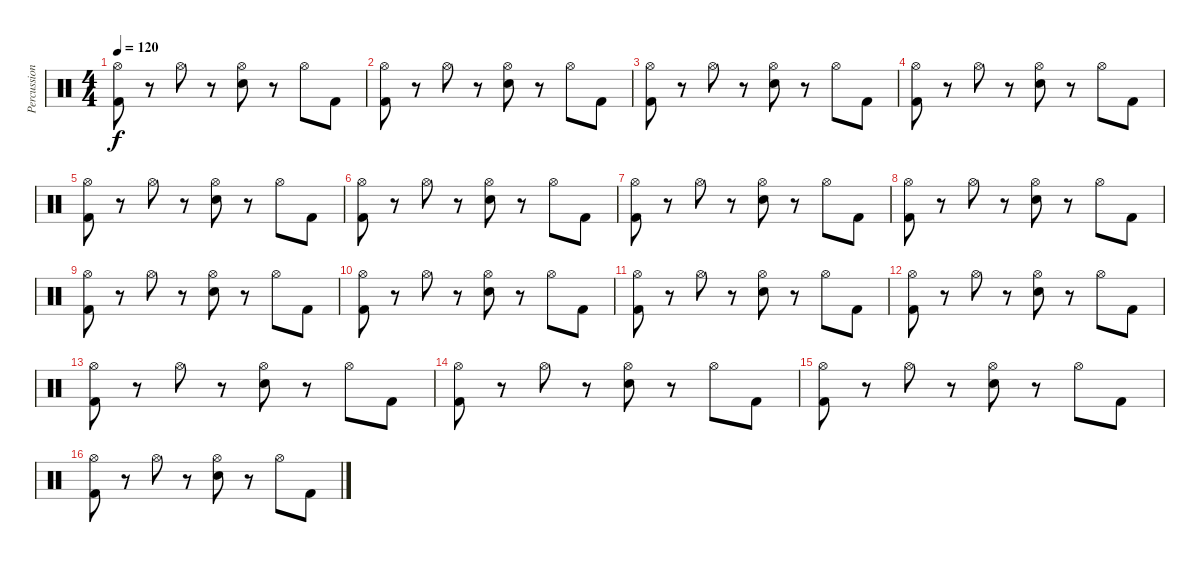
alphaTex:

\track ("Percussion" "Percussion") {instrument percussion}
\staff {score}
\articulation defaults
\ts (4 4)
\tempo 120
\clef neutral
\ks c
("Hi-Hat (open)" "Kick (hit) 2").8{dy f} r.8 "Hi-Hat (open)".8 r.8 ("Hi-Hat (open)" "Snare (hit) 2").8 r.8 "Hi-Hat (open)".8 "Kick (hit) 2".8 |
("Hi-Hat (open)" "Kick (hit) 2").8 r.8 "Hi-Hat (open)".8 r.8 ("Hi-Hat (open)" "Snare (hit) 2").8 r.8 "Hi-Hat (open)".8 "Kick (hit) 2".8 |
("Hi-Hat (open)" "Kick (hit) 2").8 r.8 "Hi-Hat (open)".8 r.8 ("Hi-Hat (open)" "Snare (hit) 2").8 r.8 "Hi-Hat (open)".8 "Kick (hit) 2".8 |
("Hi-Hat (open)" "Kick (hit) 2").8 r.8 "Hi-Hat (open)".8 r.8 ("Hi-Hat (open)" "Snare (hit) 2").8 r.8 "Hi-Hat (open)".8 "Kick (hit) 2".8 |
("Hi-Hat (open)" "Kick (hit) 2").8 r.8 "Hi-Hat (open)".8 r.8 ("Hi-Hat (open)" "Snare (hit) 2").8 r.8 "Hi-Hat (open)".8 "Kick (hit) 2".8 |
("Hi-Hat (open)" "Kick (hit) 2").8 r.8 "Hi-Hat (open)".8 r.8 ("Hi-Hat (open)" "Snare (hit) 2").8 r.8 "Hi-Hat (open)".8 "Kick (hit) 2".8 |
("Hi-Hat (open)" "Kick (hit) 2").8 r.8 "Hi-Hat (open)".8 r.8 ("Hi-Hat (open)" "Snare (hit) 2").8 r.8 "Hi-Hat (open)".8 "Kick (hit) 2".8 |
("Hi-Hat (open)" "Kick (hit) 2").8 r.8 "Hi-Hat (open)".8 r.8 ("Hi-Hat (open)" "Snare (hit) 2").8 r.8 "Hi-Hat (open)".8 "Kick (hit) 2".8 |
("Hi-Hat (open)" "Kick (hit) 2").8 r.8 "Hi-Hat (open)".8 r.8 ("Hi-Hat (open)" "Snare (hit) 2").8 r.8 "Hi-Hat (open)".8 "Kick (hit) 2".8 |
("Hi-Hat (open)" "Kick (hit) 2").8 r.8 "Hi-Hat (open)".8 r.8 ("Hi-Hat (open)" "Snare (hit) 2").8 r.8 "Hi-Hat (open)".8 "Kick (hit) 2".8 |
("Hi-Hat (open)" "Kick (hit) 2").8 r.8 "Hi-Hat (open)".8 r.8 ("Hi-Hat (open)" "Snare (hit) 2").8 r.8 "Hi-Hat (open)".8 "Kick (hit) 2".8 |
("Hi-Hat (open)" "Kick (hit) 2").8 r.8 "Hi-Hat (open)".8 r.8 ("Hi-Hat (open)" "Snare (hit) 2").8 r.8 "Hi-Hat (open)".8 "Kick (hit) 2".8 |
("Hi-Hat (open)" "Kick (hit) 2").8 r.8 "Hi-Hat (open)".8 r.8 ("Hi-Hat (open)" "Snare (hit) 2").8 r.8 "Hi-Hat (open)".8 "Kick (hit) 2".8 |
("Hi-Hat (open)" "Kick (hit) 2").8 r.8 "Hi-Hat (open)".8 r.8 ("Hi-Hat (open)" "Snare (hit) 2").8 r.8 "Hi-Hat (open)".8 "Kick (hit) 2".8 |
("Hi-Hat (open)" "Kick (hit) 2").8 r.8 "Hi-Hat (open)".8 r.8 ("Hi-Hat (open)" "Snare (hit) 2").8 r.8 "Hi-Hat (open)".8 "Kick (hit) 2".8 |
("Hi-Hat (open)" "Kick (hit) 2").8 r.8 "Hi-Hat (open)".8 r.8 ("Hi-Hat (open)" "Snare (hit) 2").8 r.8 "Hi-Hat (open)".8 "Kick (hit) 2".8
